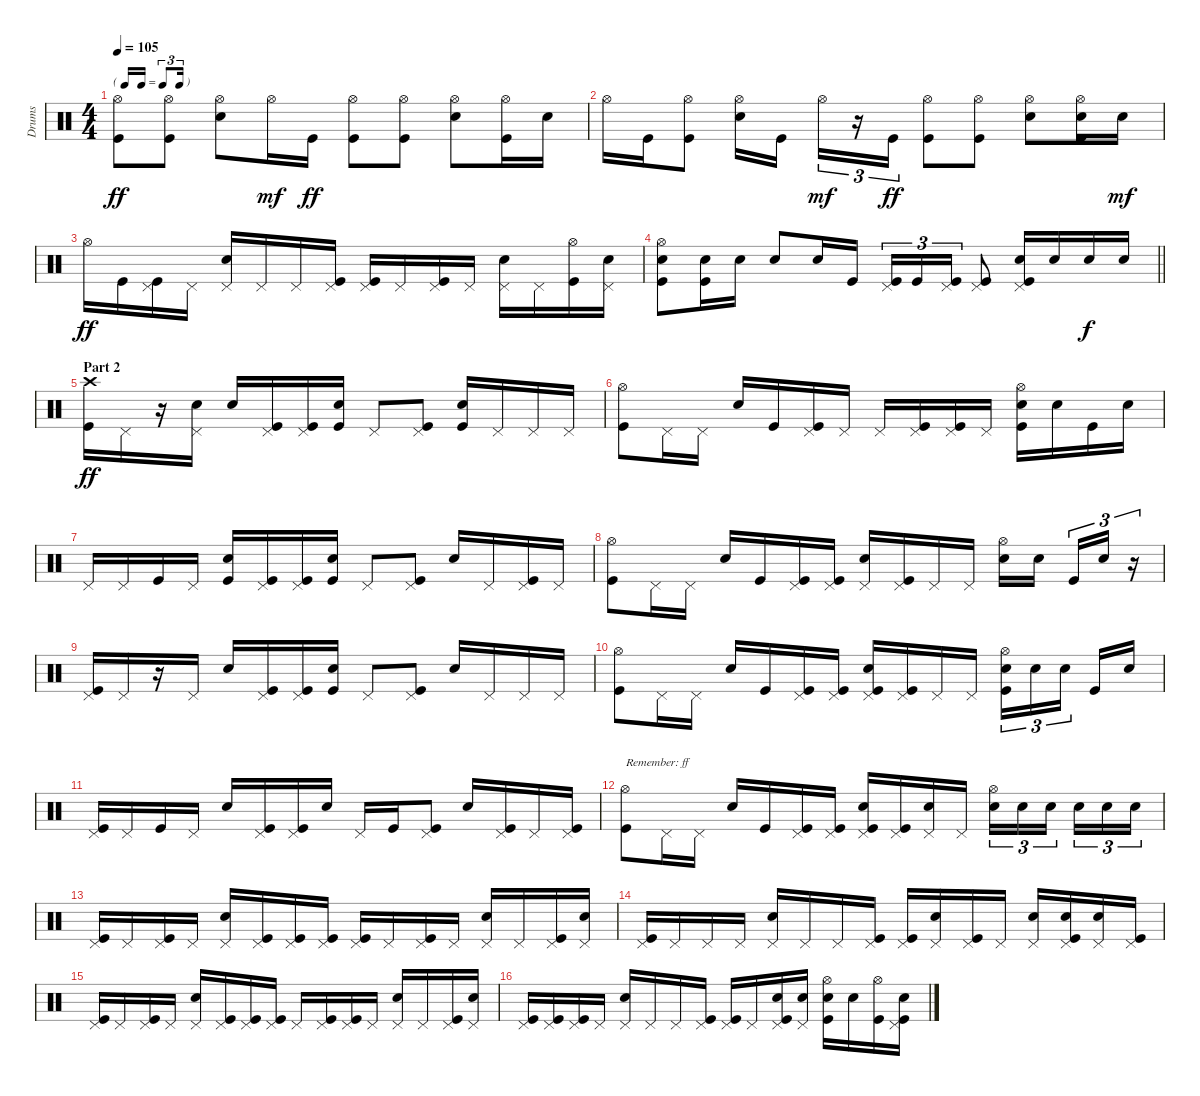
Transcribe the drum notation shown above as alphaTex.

\track ("Drums" "Drums") {instrument percussion}
\staff {score}
\articulation defaults
\ts (4 4)
\tf triplet16th
\tempo 105
\clef neutral
\ks c
("Hi-Hat (open)" "Kick (hit)").8{dy ff} ("Hi-Hat (open)" "Kick (hit)").8 ("Hi-Hat (open)" "Snare (hit) 2").8 "Hi-Hat (open)".16{dy mf} "Kick (hit)".16{dy ff} ("Hi-Hat (open)" "Kick (hit)").8 ("Hi-Hat (open)" "Kick (hit)").8 ("Hi-Hat (open)" "Snare (hit) 2").8 ("Hi-Hat (open)" "Kick (hit)").16 "Snare (hit) 2".16 |
"Hi-Hat (open)".16 "Kick (hit)".16 ("Hi-Hat (open)" "Kick (hit)").8 ("Hi-Hat (open)" "Snare (hit) 2").16 "Kick (hit)".16{beam splitsecondary} "Hi-Hat (open)".16{tu (3 2) dy mf} r.16{tu (3 2)} "Kick (hit)".16{tu (3 2) dy ff} ("Hi-Hat (open)" "Kick (hit)").8 ("Hi-Hat (open)" "Kick (hit)").8 ("Hi-Hat (open)" "Snare (hit) 2").8 ("Hi-Hat (open)" "Snare (hit) 2" "Kick (hit)").16 "Snare (hit) 2".16{dy mf} |
"Hi-Hat (open)".16{dy ff} "Kick (hit)".16 ("Pedal Hi-Hat (hit)" "Kick (hit)").16 "Pedal Hi-Hat (hit)".16 ("Pedal Hi-Hat (hit)" "Snare (hit) 2").16 "Pedal Hi-Hat (hit)".16 "Pedal Hi-Hat (hit)".16 ("Pedal Hi-Hat (hit)" "Kick (hit)").16 ("Pedal Hi-Hat (hit)" "Kick (hit)").16 "Pedal Hi-Hat (hit)".16 ("Pedal Hi-Hat (hit)" "Kick (hit)").16 "Pedal Hi-Hat (hit)".16 ("Pedal Hi-Hat (hit)" "Snare (hit) 2").16 "Pedal Hi-Hat (hit)".16 ("Hi-Hat (open)" "Kick (hit)").16 ("Pedal Hi-Hat (hit)" "Snare (hit) 2").16 |
\barLineRight lightlight
("Hi-Hat (open)" "Snare (hit) 2" "Kick (hit)").8 ("Snare (hit) 2" "Kick (hit)").16 "Snare (hit) 2".16 "Snare (hit) 2".8 "Snare (hit) 2".16 "Kick (hit)".16 ("Pedal Hi-Hat (hit)" "Kick (hit)").16{tu (3 2)} "Kick (hit)".16{tu (3 2)} ("Pedal Hi-Hat (hit)" "Kick (hit)").16{tu (3 2)} ("Pedal Hi-Hat (hit)" "Kick (hit)").8 ("Pedal Hi-Hat (hit)" "Snare (hit) 2" "Kick (hit)").16 "Snare (hit) 2".16 "Snare (hit) 2".16{dy f} "Snare (hit) 2".16 |
\section ("" "Part 2")
("Crash high (hit)" "Kick (hit)").16{dy ff} "Pedal Hi-Hat (hit)".16 r.16 ("Pedal Hi-Hat (hit)" "Snare (hit) 2").16 "Snare (hit) 2".16 ("Pedal Hi-Hat (hit)" "Kick (hit)").16 ("Pedal Hi-Hat (hit)" "Kick (hit)").16 ("Snare (hit) 2" "Kick (hit)").16 "Pedal Hi-Hat (hit)".8 ("Pedal Hi-Hat (hit)" "Kick (hit)").8 ("Snare (hit) 2" "Kick (hit)").16 "Pedal Hi-Hat (hit)".16 "Pedal Hi-Hat (hit)".16 "Pedal Hi-Hat (hit)".16 |
("Hi-Hat (open)" "Kick (hit)").8 "Pedal Hi-Hat (hit)".16 "Pedal Hi-Hat (hit)".16 "Snare (hit) 2".16 "Kick (hit)".16 ("Pedal Hi-Hat (hit)" "Kick (hit)").16 "Pedal Hi-Hat (hit)".16 "Pedal Hi-Hat (hit)".16 ("Pedal Hi-Hat (hit)" "Kick (hit)").16 ("Pedal Hi-Hat (hit)" "Kick (hit)").16 "Pedal Hi-Hat (hit)".16 ("Hi-Hat (open)" "Snare (hit) 2" "Kick (hit)").16 "Snare (hit) 2".16 "Kick (hit)".16 "Snare (hit) 2".16 |
"Pedal Hi-Hat (hit)".16 "Pedal Hi-Hat (hit)".16 "Kick (hit)".16 "Pedal Hi-Hat (hit)".16 ("Snare (hit) 2" "Kick (hit)").16 ("Pedal Hi-Hat (hit)" "Kick (hit)").16 ("Pedal Hi-Hat (hit)" "Kick (hit)").16 ("Snare (hit) 2" "Kick (hit)").16 "Pedal Hi-Hat (hit)".8 ("Pedal Hi-Hat (hit)" "Kick (hit)").8 "Snare (hit) 2".16 "Pedal Hi-Hat (hit)".16 ("Pedal Hi-Hat (hit)" "Kick (hit)").16 "Pedal Hi-Hat (hit)".16 |
("Hi-Hat (open)" "Kick (hit)").8 "Pedal Hi-Hat (hit)".16 "Pedal Hi-Hat (hit)".16 "Snare (hit) 2".16 "Kick (hit)".16 ("Pedal Hi-Hat (hit)" "Kick (hit)").16 ("Pedal Hi-Hat (hit)" "Kick (hit)").16 ("Pedal Hi-Hat (hit)" "Snare (hit) 2").16 ("Pedal Hi-Hat (hit)" "Kick (hit)").16 "Pedal Hi-Hat (hit)".16 "Pedal Hi-Hat (hit)".16 ("Hi-Hat (open)" "Snare (hit) 2").16 "Snare (hit) 2".16{beam splitsecondary} "Kick (hit)".16{tu (3 2)} "Snare (hit) 2".16{tu (3 2)} r.16{tu (3 2)} |
("Pedal Hi-Hat (hit)" "Kick (hit)").16 "Pedal Hi-Hat (hit)".16 r.16 "Pedal Hi-Hat (hit)".16 "Snare (hit) 2".16 ("Pedal Hi-Hat (hit)" "Kick (hit)").16 ("Pedal Hi-Hat (hit)" "Kick (hit)").16 ("Snare (hit) 2" "Kick (hit)").16 "Pedal Hi-Hat (hit)".8 ("Pedal Hi-Hat (hit)" "Kick (hit)").8 "Snare (hit) 2".16 "Pedal Hi-Hat (hit)".16 "Pedal Hi-Hat (hit)".16 "Pedal Hi-Hat (hit)".16 |
("Hi-Hat (open)" "Kick (hit)").8 "Pedal Hi-Hat (hit)".16 "Pedal Hi-Hat (hit)".16 "Snare (hit) 2".16 "Kick (hit)".16 ("Pedal Hi-Hat (hit)" "Kick (hit)").16 ("Pedal Hi-Hat (hit)" "Kick (hit)").16 ("Pedal Hi-Hat (hit)" "Snare (hit) 2" "Kick (hit)").16 ("Pedal Hi-Hat (hit)" "Kick (hit)").16 "Pedal Hi-Hat (hit)".16 "Pedal Hi-Hat (hit)".16 ("Hi-Hat (open)" "Snare (hit) 2" "Kick (hit)").16{tu (3 2)} "Snare (hit) 2".16{tu (3 2)} "Snare (hit) 2".16{tu (3 2) beam splitsecondary} "Kick (hit)".16 "Snare (hit) 2".16 |
("Pedal Hi-Hat (hit)" "Kick (hit)").16 "Pedal Hi-Hat (hit)".16 "Kick (hit)".16 "Pedal Hi-Hat (hit)".16 "Snare (hit) 2".16 ("Pedal Hi-Hat (hit)" "Kick (hit)").16 ("Pedal Hi-Hat (hit)" "Kick (hit)").16 "Snare (hit) 2".16 "Pedal Hi-Hat (hit)".16 "Kick (hit)".16 ("Pedal Hi-Hat (hit)" "Kick (hit)").8 "Snare (hit) 2".16 ("Pedal Hi-Hat (hit)" "Kick (hit)").16 "Pedal Hi-Hat (hit)".16 ("Pedal Hi-Hat (hit)" "Kick (hit)").16 |
("Hi-Hat (open)" "Kick (hit)").8{txt "Remember: ff"} "Pedal Hi-Hat (hit)".16 "Pedal Hi-Hat (hit)".16 "Snare (hit) 2".16 "Kick (hit)".16 ("Pedal Hi-Hat (hit)" "Kick (hit)").16 ("Pedal Hi-Hat (hit)" "Kick (hit)").16 ("Pedal Hi-Hat (hit)" "Snare (hit) 2" "Kick (hit)").16 ("Pedal Hi-Hat (hit)" "Kick (hit)").16 ("Pedal Hi-Hat (hit)" "Snare (hit) 2").16 "Pedal Hi-Hat (hit)".16 ("Hi-Hat (open)" "Snare (hit) 2").16{tu (3 2)} "Snare (hit) 2".16{tu (3 2)} "Snare (hit) 2".16{tu (3 2) beam splitsecondary} "Snare (hit) 2".16{tu (3 2)} "Snare (hit) 2".16{tu (3 2)} "Snare (hit) 2".16{tu (3 2)} |
("Pedal Hi-Hat (hit)" "Kick (hit)").16 "Pedal Hi-Hat (hit)".16 ("Pedal Hi-Hat (hit)" "Kick (hit)").16 "Pedal Hi-Hat (hit)".16 ("Pedal Hi-Hat (hit)" "Snare (hit) 2").16 ("Pedal Hi-Hat (hit)" "Kick (hit)").16 ("Pedal Hi-Hat (hit)" "Kick (hit)").16 ("Pedal Hi-Hat (hit)" "Kick (hit)").16 ("Pedal Hi-Hat (hit)" "Kick (hit)").16 "Pedal Hi-Hat (hit)".16 ("Pedal Hi-Hat (hit)" "Kick (hit)").16 "Pedal Hi-Hat (hit)".16 ("Pedal Hi-Hat (hit)" "Snare (hit) 2").16 "Pedal Hi-Hat (hit)".16 ("Pedal Hi-Hat (hit)" "Kick (hit)").16 ("Pedal Hi-Hat (hit)" "Snare (hit) 2").16 |
("Pedal Hi-Hat (hit)" "Kick (hit)").16 "Pedal Hi-Hat (hit)".16 "Pedal Hi-Hat (hit)".16 "Pedal Hi-Hat (hit)".16 ("Pedal Hi-Hat (hit)" "Snare (hit) 2").16 "Pedal Hi-Hat (hit)".16 "Pedal Hi-Hat (hit)".16 ("Pedal Hi-Hat (hit)" "Kick (hit)").16 ("Pedal Hi-Hat (hit)" "Kick (hit)").16 ("Pedal Hi-Hat (hit)" "Snare (hit) 2").16 ("Pedal Hi-Hat (hit)" "Kick (hit)").16 "Pedal Hi-Hat (hit)".16 ("Pedal Hi-Hat (hit)" "Snare (hit) 2").16 ("Pedal Hi-Hat (hit)" "Snare (hit) 2" "Kick (hit)").16 ("Pedal Hi-Hat (hit)" "Snare (hit) 2").16 ("Pedal Hi-Hat (hit)" "Kick (hit)").16 |
("Pedal Hi-Hat (hit)" "Kick (hit)").16 "Pedal Hi-Hat (hit)".16 ("Pedal Hi-Hat (hit)" "Kick (hit)").16 "Pedal Hi-Hat (hit)".16 ("Pedal Hi-Hat (hit)" "Snare (hit) 2").16 ("Pedal Hi-Hat (hit)" "Kick (hit)").16 ("Pedal Hi-Hat (hit)" "Kick (hit)").16 ("Pedal Hi-Hat (hit)" "Kick (hit)").16 "Pedal Hi-Hat (hit)".16 ("Pedal Hi-Hat (hit)" "Kick (hit)").16 ("Pedal Hi-Hat (hit)" "Kick (hit)").16 "Pedal Hi-Hat (hit)".16 ("Pedal Hi-Hat (hit)" "Snare (hit) 2").16 "Pedal Hi-Hat (hit)".16 ("Pedal Hi-Hat (hit)" "Kick (hit)").16 ("Pedal Hi-Hat (hit)" "Snare (hit) 2").16 |
("Pedal Hi-Hat (hit)" "Kick (hit)").16 ("Pedal Hi-Hat (hit)" "Kick (hit)").16 ("Pedal Hi-Hat (hit)" "Kick (hit)").16 "Pedal Hi-Hat (hit)".16 ("Pedal Hi-Hat (hit)" "Snare (hit) 2").16 "Pedal Hi-Hat (hit)".16 "Pedal Hi-Hat (hit)".16 ("Pedal Hi-Hat (hit)" "Kick (hit)").16 ("Pedal Hi-Hat (hit)" "Kick (hit)").16 "Pedal Hi-Hat (hit)".16 ("Pedal Hi-Hat (hit)" "Snare (hit) 2" "Kick (hit)").16 ("Pedal Hi-Hat (hit)" "Snare (hit) 2").16 ("Hi-Hat (open)" "Snare (hit) 2" "Kick (hit)").16 "Snare (hit) 2".16 ("Hi-Hat (open)" "Kick (hit)").16 ("Pedal Hi-Hat (hit)" "Snare (hit) 2" "Kick (hit)").16
